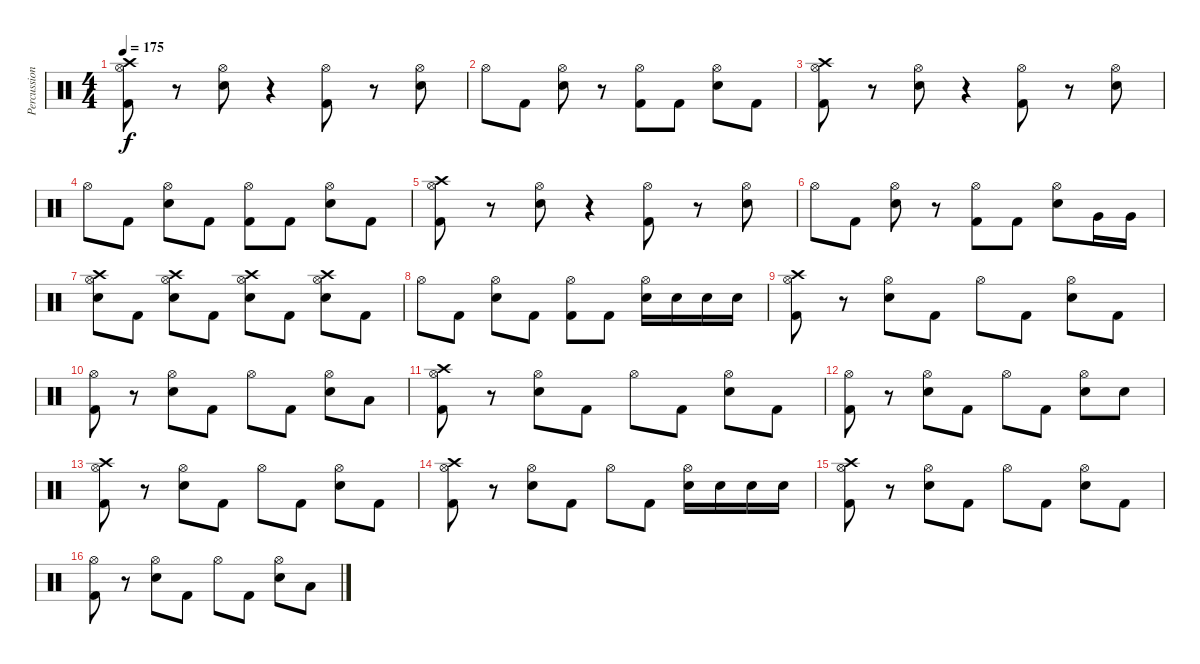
\track ("Percussion" "Percussion") {instrument percussion}
\staff {score}
\articulation defaults
\ts (4 4)
\tempo 175
\clef neutral
\ks c
("Crash high (hit)" "Hi-Hat (open)" "Kick (hit) 2").8{dy f} r.8 ("Hi-Hat (open)" "Electric Snare (hit)").8 r.4 ("Hi-Hat (open)" "Kick (hit) 2").8 r.8 ("Hi-Hat (open)" "Electric Snare (hit)").8 |
"Hi-Hat (open)".8 "Kick (hit) 2".8 ("Hi-Hat (open)" "Electric Snare (hit)").8 r.8 ("Hi-Hat (open)" "Kick (hit) 2").8 "Kick (hit) 2".8 ("Hi-Hat (open)" "Electric Snare (hit)").8 "Kick (hit) 2".8 |
("Crash high (hit)" "Hi-Hat (open)" "Kick (hit) 2").8 r.8 ("Hi-Hat (open)" "Electric Snare (hit)").8 r.4 ("Hi-Hat (open)" "Kick (hit) 2").8 r.8 ("Hi-Hat (open)" "Electric Snare (hit)").8 |
"Hi-Hat (open)".8 "Kick (hit) 2".8 ("Hi-Hat (open)" "Electric Snare (hit)").8 "Kick (hit) 2".8 ("Hi-Hat (open)" "Kick (hit) 2").8 "Kick (hit) 2".8 ("Hi-Hat (open)" "Electric Snare (hit)").8 "Kick (hit) 2".8 |
("Crash high (hit)" "Hi-Hat (open)" "Kick (hit) 2").8 r.8 ("Hi-Hat (open)" "Electric Snare (hit)").8 r.4 ("Hi-Hat (open)" "Kick (hit) 2").8 r.8 ("Hi-Hat (open)" "Electric Snare (hit)").8 |
"Hi-Hat (open)".8 "Kick (hit) 2".8 ("Hi-Hat (open)" "Electric Snare (hit)").8 r.8 ("Hi-Hat (open)" "Kick (hit) 2").8 "Kick (hit) 2".8 ("Hi-Hat (open)" "Electric Snare (hit)").8 "Very Low Tom (hit)".16 "Very Low Tom (hit)".16 |
("Crash high (hit)" "Hi-Hat (open)" "Electric Snare (hit)").8 "Kick (hit) 2".8 ("Crash high (hit)" "Hi-Hat (open)" "Electric Snare (hit)").8 "Kick (hit) 2".8 ("Crash high (hit)" "Hi-Hat (open)" "Electric Snare (hit)").8 "Kick (hit) 2".8 ("Crash high (hit)" "Hi-Hat (open)" "Electric Snare (hit)").8 "Kick (hit) 2".8 |
"Hi-Hat (open)".8 "Kick (hit) 2".8 ("Hi-Hat (open)" "Electric Snare (hit)").8 "Kick (hit) 2".8 ("Hi-Hat (open)" "Kick (hit) 2").8 "Kick (hit) 2".8 ("Hi-Hat (open)" "Electric Snare (hit)").16 "Electric Snare (hit)".16 "Electric Snare (hit)".16 "Electric Snare (hit)".16 |
("Crash high (hit)" "Hi-Hat (open)" "Kick (hit) 2").8 r.8 ("Hi-Hat (open)" "Electric Snare (hit)").8 "Kick (hit) 2".8 "Hi-Hat (open)".8 "Kick (hit) 2".8 ("Hi-Hat (open)" "Electric Snare (hit)").8 "Kick (hit) 2".8 |
("Hi-Hat (open)" "Kick (hit) 2").8 r.8 ("Hi-Hat (open)" "Electric Snare (hit)").8 "Kick (hit) 2".8 "Hi-Hat (open)".8 "Kick (hit) 2".8 ("Hi-Hat (open)" "Electric Snare (hit)").8 "Low Tom (hit)".8 |
("Crash high (hit)" "Hi-Hat (open)" "Kick (hit) 2").8 r.8 ("Hi-Hat (open)" "Electric Snare (hit)").8 "Kick (hit) 2".8 "Hi-Hat (open)".8 "Kick (hit) 2".8 ("Hi-Hat (open)" "Electric Snare (hit)").8 "Kick (hit) 2".8 |
("Hi-Hat (open)" "Kick (hit) 2").8 r.8 ("Hi-Hat (open)" "Electric Snare (hit)").8 "Kick (hit) 2".8 "Hi-Hat (open)".8 "Kick (hit) 2".8 ("Hi-Hat (open)" "Electric Snare (hit)").8 "Electric Snare (hit)".8 |
("Crash high (hit)" "Hi-Hat (open)" "Kick (hit) 2").8 r.8 ("Hi-Hat (open)" "Electric Snare (hit)").8 "Kick (hit) 2".8 "Hi-Hat (open)".8 "Kick (hit) 2".8 ("Hi-Hat (open)" "Electric Snare (hit)").8 "Kick (hit) 2".8 |
("Crash high (hit)" "Hi-Hat (open)" "Kick (hit) 2").8 r.8 ("Hi-Hat (open)" "Electric Snare (hit)").8 "Kick (hit) 2".8 "Hi-Hat (open)".8 "Kick (hit) 2".8 ("Hi-Hat (open)" "Electric Snare (hit)").16 "Electric Snare (hit)".16 "Electric Snare (hit)".16 "Electric Snare (hit)".16 |
("Crash high (hit)" "Hi-Hat (open)" "Kick (hit) 2").8 r.8 ("Hi-Hat (open)" "Electric Snare (hit)").8 "Kick (hit) 2".8 "Hi-Hat (open)".8 "Kick (hit) 2".8 ("Hi-Hat (open)" "Electric Snare (hit)").8 "Kick (hit) 2".8 |
("Hi-Hat (open)" "Kick (hit) 2").8 r.8 ("Hi-Hat (open)" "Electric Snare (hit)").8 "Kick (hit) 2".8 "Hi-Hat (open)".8 "Kick (hit) 2".8 ("Hi-Hat (open)" "Electric Snare (hit)").8 "Low Tom (hit)".8
